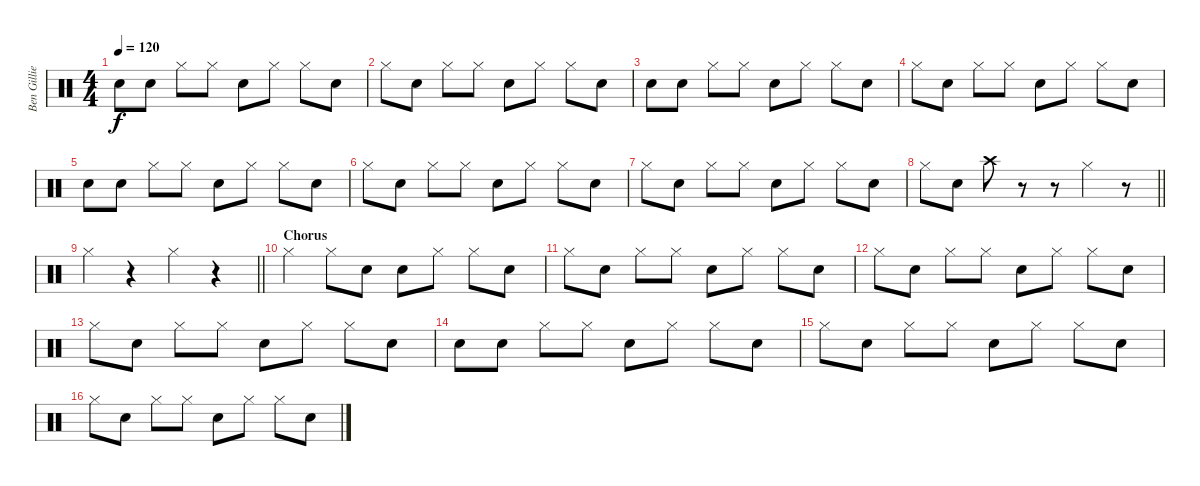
\track ("Ben Gillies(drums)" "Ben Gillie") {instrument percussion}
\staff {score}
\articulation defaults
\ts (4 4)
\tempo 120
\clef neutral
\ks c "Electric Snare (hit)".8{dy f} "Electric Snare (hit)".8 "Hi-Hat (closed)".8 "Hi-Hat (closed)".8 "Electric Snare (hit)".8 "Hi-Hat (closed)".8 "Hi-Hat (closed)".8 "Electric Snare (hit)".8
|
"Hi-Hat (closed)".8 "Electric Snare (hit)".8 "Hi-Hat (closed)".8 "Hi-Hat (closed)".8 "Electric Snare (hit)".8 "Hi-Hat (closed)".8 "Hi-Hat (closed)".8 "Electric Snare (hit)".8 |
"Electric Snare (hit)".8 "Electric Snare (hit)".8 "Hi-Hat (closed)".8 "Hi-Hat (closed)".8 "Electric Snare (hit)".8 "Hi-Hat (closed)".8 "Hi-Hat (closed)".8 "Electric Snare (hit)".8 |
"Hi-Hat (closed)".8 "Electric Snare (hit)".8 "Hi-Hat (closed)".8 "Hi-Hat (closed)".8 "Electric Snare (hit)".8 "Hi-Hat (closed)".8 "Hi-Hat (closed)".8 "Electric Snare (hit)".8 |
"Electric Snare (hit)".8 "Electric Snare (hit)".8 "Hi-Hat (closed)".8 "Hi-Hat (closed)".8 "Electric Snare (hit)".8 "Hi-Hat (closed)".8 "Hi-Hat (closed)".8 "Electric Snare (hit)".8 |
"Hi-Hat (closed)".8 "Electric Snare (hit)".8 "Hi-Hat (closed)".8 "Hi-Hat (closed)".8 "Electric Snare (hit)".8 "Hi-Hat (closed)".8 "Hi-Hat (closed)".8 "Electric Snare (hit)".8 |
"Hi-Hat (closed)".8 "Electric Snare (hit)".8 "Hi-Hat (closed)".8 "Hi-Hat (closed)".8 "Electric Snare (hit)".8 "Hi-Hat (closed)".8 "Hi-Hat (closed)".8 "Electric Snare (hit)".8 |
\barLineRight lightlight "Hi-Hat (closed)".8 "Electric Snare (hit)".8 "Crash high (hit)".8
r.8 r.8 "Hi-Hat (closed)".4 r.8 |
\section ("" "")
\barLineRight lightlight "Hi-Hat (closed)".4
r.4 "Hi-Hat (closed)".4 r.4 |
\section ("" "Chorus")
"Hi-Hat (closed)".4 "Hi-Hat (closed)".8 "Electric Snare (hit)".8 "Electric Snare (hit)".8 "Hi-Hat (closed)".8 "Hi-Hat (closed)".8 "Electric Snare (hit)".8 |
"Hi-Hat (closed)".8 "Electric Snare (hit)".8 "Hi-Hat (closed)".8 "Hi-Hat (closed)".8 "Electric Snare (hit)".8 "Hi-Hat (closed)".8 "Hi-Hat (closed)".8 "Electric Snare (hit)".8 |
"Hi-Hat (closed)".8 "Electric Snare (hit)".8 "Hi-Hat (closed)".8 "Hi-Hat (closed)".8 "Electric Snare (hit)".8 "Hi-Hat (closed)".8 "Hi-Hat (closed)".8 "Electric Snare (hit)".8 |
"Hi-Hat (closed)".8 "Electric Snare (hit)".8 "Hi-Hat (closed)".8 "Hi-Hat (closed)".8 "Electric Snare (hit)".8 "Hi-Hat (closed)".8 "Hi-Hat (closed)".8 "Electric Snare (hit)".8 |
"Electric Snare (hit)".8 "Electric Snare (hit)".8 "Hi-Hat (closed)".8 "Hi-Hat (closed)".8 "Electric Snare (hit)".8 "Hi-Hat (closed)".8 "Hi-Hat (closed)".8 "Electric Snare (hit)".8 |
"Hi-Hat (closed)".8 "Electric Snare (hit)".8 "Hi-Hat (closed)".8 "Hi-Hat (closed)".8 "Electric Snare (hit)".8 "Hi-Hat (closed)".8 "Hi-Hat (closed)".8 "Electric Snare (hit)".8 |
"Hi-Hat (closed)".8 "Electric Snare (hit)".8 "Hi-Hat (closed)".8 "Hi-Hat (closed)".8 "Electric Snare (hit)".8 "Hi-Hat (closed)".8 "Hi-Hat (closed)".8 "Electric Snare (hit)".8
